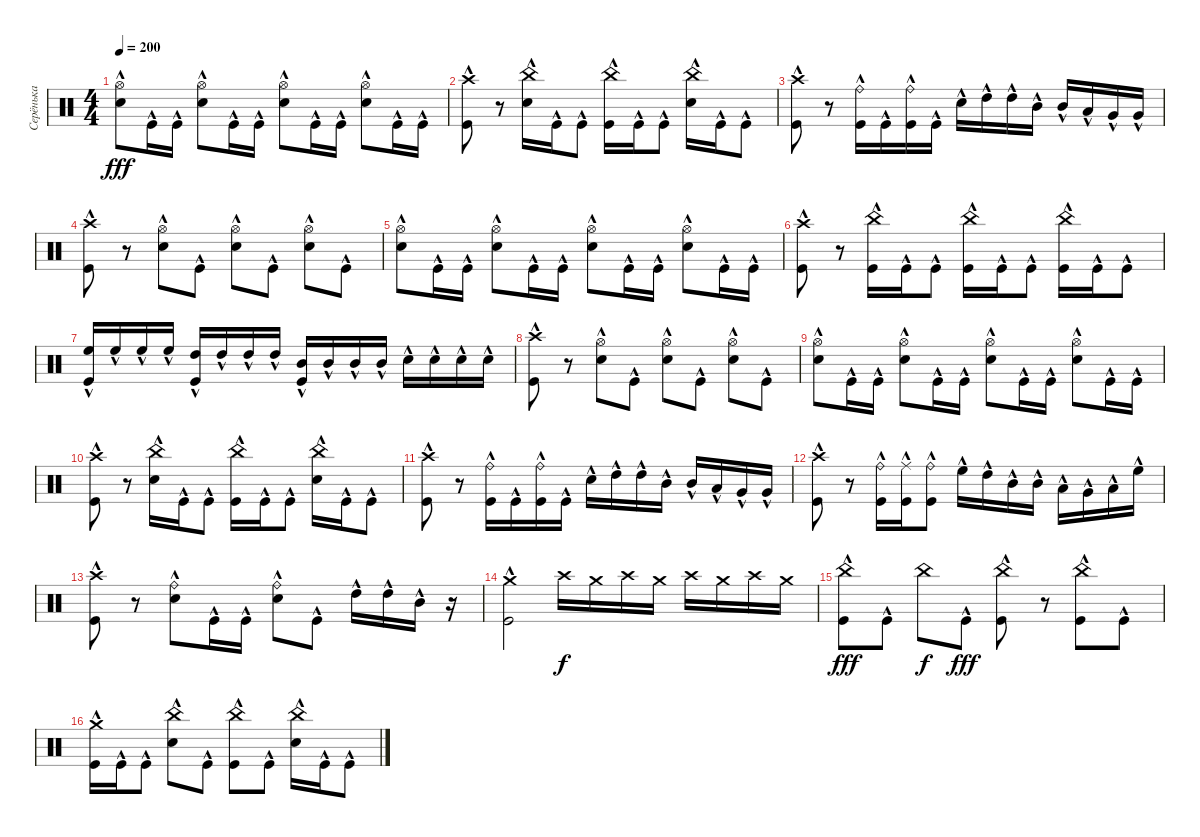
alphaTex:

\track ("Серёнька" "Серёнька") {instrument percussion}
\staff {score}
\articulation defaults
\ts (4 4)
\tempo 200
\clef neutral
\ks c
("Hi-Hat (open)" "Snare (hit) 2"{hac}).8{dy fff} "Kick (hit)"{hac}.16 "Kick (hit)"{hac}.16 ("Hi-Hat (open)" "Snare (hit) 2"{hac}).8 "Kick (hit)"{hac}.16 "Kick (hit)"{hac}.16 ("Hi-Hat (open)" "Snare (hit) 2"{hac}).8 "Kick (hit)"{hac}.16 "Kick (hit)"{hac}.16 ("Hi-Hat (open)" "Snare (hit) 2"{hac}).8 "Kick (hit)"{hac}.16 "Kick (hit)"{hac}.16 |
("Crash high (hit)" "Kick (hit)"{hac}).8 r.8 ("China (hit)" "Snare (hit) 2"{hac}).16 "Kick (hit)"{hac}.16 "Kick (hit)"{hac}.8 ("China (hit)" "Kick (hit)"{hac}).16 "Kick (hit)"{hac}.16 "Kick (hit)"{hac}.8 ("China (hit)" "Snare (hit) 2"{hac}).16 "Kick (hit)"{hac}.16 "Kick (hit)"{hac}.8 |
("Crash high (hit)"{hac} "Kick (hit)"{hac}).8 r.8 ("Ride (bell)" "Kick (hit)"{hac}).16 "Kick (hit)"{hac}.16 ("Ride (bell)" "Kick (hit)"{hac}).16 "Kick (hit)"{hac}.16 "Snare (hit) 2"{hac}.16 "High Tom (hit)"{hac}.16 "High Tom (hit)"{hac}.16 "Mid Tom (hit)"{hac}.16 "Mid Tom (hit)"{hac}.16 "Low Tom (hit)"{hac}.16 "Very Low Tom (hit)"{hac}.16 "Very Low Tom (hit)"{hac}.16 |
("Crash high (hit)" "Kick (hit)"{hac}).8 r.8 ("Hi-Hat (open)" "Snare (hit) 2"{hac}).8 "Kick (hit)"{hac}.8 ("Hi-Hat (open)" "Snare (hit) 2"{hac}).8 "Kick (hit)"{hac}.8 ("Hi-Hat (open)" "Snare (hit) 2"{hac}).8 "Kick (hit)"{hac}.8 |
("Hi-Hat (open)" "Snare (hit) 2"{hac}).8 "Kick (hit)"{hac}.16 "Kick (hit)"{hac}.16 ("Hi-Hat (open)" "Snare (hit) 2"{hac}).8 "Kick (hit)"{hac}.16 "Kick (hit)"{hac}.16 ("Hi-Hat (open)" "Snare (hit) 2"{hac}).8 "Kick (hit)"{hac}.16 "Kick (hit)"{hac}.16 ("Hi-Hat (open)" "Snare (hit) 2"{hac}).8 "Kick (hit)"{hac}.16 "Kick (hit)"{hac}.16 |
("Crash high (hit)" "Kick (hit)"{hac}).8 r.8 ("China (hit)" "Kick (hit)"{hac}).16 "Kick (hit)"{hac}.16 "Kick (hit)"{hac}.8 ("China (hit)" "Kick (hit)"{hac}).16 "Kick (hit)"{hac}.16 "Kick (hit)"{hac}.8 ("China (hit)" "Kick (hit)"{hac}).16 "Kick (hit)"{hac}.16 "Kick (hit)"{hac}.8 |
("Kick (hit)"{hac} "High Floor Tom (hit)"{hac}).16 "High Floor Tom (hit)"{hac}.16 "High Floor Tom (hit)"{hac}.16 "High Floor Tom (hit)"{hac}.16 ("Kick (hit)"{hac} "High Tom (hit)"{hac}).16 "High Tom (hit)"{hac}.16 "High Tom (hit)"{hac}.16 "High Tom (hit)"{hac}.16 ("Kick (hit)"{hac} "Mid Tom (hit)"{hac}).16 "Mid Tom (hit)"{hac}.16 "Mid Tom (hit)"{hac}.16 "Mid Tom (hit)"{hac}.16 "Snare (hit) 2"{hac}.16 "Snare (hit) 2"{hac}.16 "Snare (hit) 2"{hac}.16 "Snare (hit) 2"{hac}.16 |
("Crash high (hit)" "Kick (hit)"{hac}).8 r.8 ("Hi-Hat (open)" "Snare (hit) 2"{hac}).8 "Kick (hit)"{hac}.8 ("Hi-Hat (open)" "Snare (hit) 2"{hac}).8 "Kick (hit)"{hac}.8 ("Hi-Hat (open)" "Snare (hit) 2"{hac}).8 "Kick (hit)"{hac}.8 |
("Hi-Hat (open)" "Snare (hit) 2"{hac}).8 "Kick (hit)"{hac}.16 "Kick (hit)"{hac}.16 ("Hi-Hat (open)" "Snare (hit) 2"{hac}).8 "Kick (hit)"{hac}.16 "Kick (hit)"{hac}.16 ("Hi-Hat (open)" "Snare (hit) 2"{hac}).8 "Kick (hit)"{hac}.16 "Kick (hit)"{hac}.16 ("Hi-Hat (open)" "Snare (hit) 2"{hac}).8 "Kick (hit)"{hac}.16 "Kick (hit)"{hac}.16 |
("Crash high (hit)" "Kick (hit)"{hac}).8 r.8 ("China (hit)" "Snare (hit) 2"{hac}).16 "Kick (hit)"{hac}.16 "Kick (hit)"{hac}.8 ("China (hit)" "Kick (hit)"{hac}).16 "Kick (hit)"{hac}.16 "Kick (hit)"{hac}.8 ("China (hit)" "Snare (hit) 2"{hac}).16 "Kick (hit)"{hac}.16 "Kick (hit)"{hac}.8 |
("Crash high (hit)"{hac} "Kick (hit)"{hac}).8 r.8 ("Ride (bell)" "Kick (hit)"{hac}).16 "Kick (hit)"{hac}.16 ("Ride (bell)" "Kick (hit)"{hac}).16 "Kick (hit)"{hac}.16 "Snare (hit) 2"{hac}.16 "High Tom (hit)"{hac}.16 "High Tom (hit)"{hac}.16 "Mid Tom (hit)"{hac}.16 "Mid Tom (hit)"{hac}.16 "Low Tom (hit)"{hac}.16 "Very Low Tom (hit)"{hac}.16 "Very Low Tom (hit)"{hac}.16 |
("Crash high (hit)"{hac} "Kick (hit)"{hac}).8 r.8 ("Ride (bell)"{hac} "Kick (hit)"{hac}).16 ("Ride (middle)"{hac} "Kick (hit)"{hac}).16 ("Ride (bell)"{hac} "Kick (hit)"{hac}).8 "High Floor Tom (hit)"{hac}.16 "High Tom (hit)"{hac}.16 "Mid Tom (hit)"{hac}.16 "Mid Tom (hit)"{hac}.16 "Low Tom (hit)"{hac}.16 "Very Low Tom (hit)"{hac}.16 "Low Tom (hit)"{hac}.16 "High Floor Tom (hit)"{hac}.16 |
("Crash high (hit)"{hac} "Kick (hit)"{hac}).8 r.8 ("Ride (bell)" "Snare (hit) 2"{hac}).8 "Kick (hit)"{hac}.16 "Kick (hit)"{hac}.16 ("Ride (bell)" "Snare (hit) 2"{hac}).8 "Kick (hit)"{hac}.8 "High Tom (hit)"{hac}.16 "High Tom (hit)"{hac}.16 "Mid Tom (hit)"{hac}.16 r.16 |
("Crash medium (hit)"{hac} "Kick (hit)"{hac}).2 "Crash high (hit)".16{dy f volume 7} "Crash medium (hit)".16 "Crash high (hit)".16 "Crash medium (hit)".16 "Crash high (hit)".16 "Crash medium (hit)".16 "Crash high (hit)".16 "Crash medium (hit)".16 |
("China (hit)" "Kick (hit)"{hac}).8{dy fff volume 16} "Kick (hit)"{hac}.8 "China (hit)".8{dy f} "Kick (hit)"{hac}.8{dy fff} ("China (hit)" "Kick (hit)"{hac}).8 r.8 ("China (hit)" "Kick (hit)"{hac}).8 "Kick (hit)"{hac}.8 |
("Crash medium (hit)"{hac} "Kick (hit)"{hac}).16 "Kick (hit)"{hac}.16 "Kick (hit)"{hac}.8 ("China (hit)" "Snare (hit) 2"{hac}).8 "Kick (hit)"{hac}.8 ("China (hit)" "Kick (hit)"{hac}).8 "Kick (hit)"{hac}.8 ("China (hit)" "Snare (hit) 2"{hac}).16 "Kick (hit)"{hac}.16 "Kick (hit)"{hac}.8
